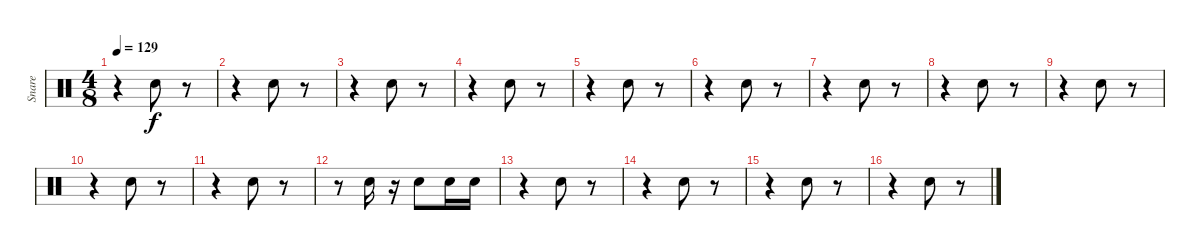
\track ("Snare" "Snare") {instrument percussion}
\staff {score}
\articulation defaults
\ts (4 8)
\tempo 129
\clef neutral
\ks c
r.4{dy f} "Snare (hit) 2".8 r.8 |
r.4 "Snare (hit) 2".8 r.8 |
r.4 "Snare (hit) 2".8 r.8 |
r.4 "Snare (hit) 2".8 r.8 |
r.4 "Snare (hit) 2".8 r.8 |
r.4 "Snare (hit) 2".8 r.8 |
r.4 "Snare (hit) 2".8 r.8 |
r.4 "Snare (hit) 2".8 r.8 |
r.4 "Snare (hit) 2".8 r.8 |
r.4 "Snare (hit) 2".8 r.8 |
r.4 "Snare (hit) 2".8 r.8 |
r.8 "Snare (hit) 2".16 r.16 "Snare (hit) 2".8 "Snare (hit) 2".16 "Snare (hit) 2".16 |
r.4 "Snare (hit) 2".8 r.8 |
r.4 "Snare (hit) 2".8 r.8 |
r.4 "Snare (hit) 2".8 r.8 |
r.4 "Snare (hit) 2".8 r.8
